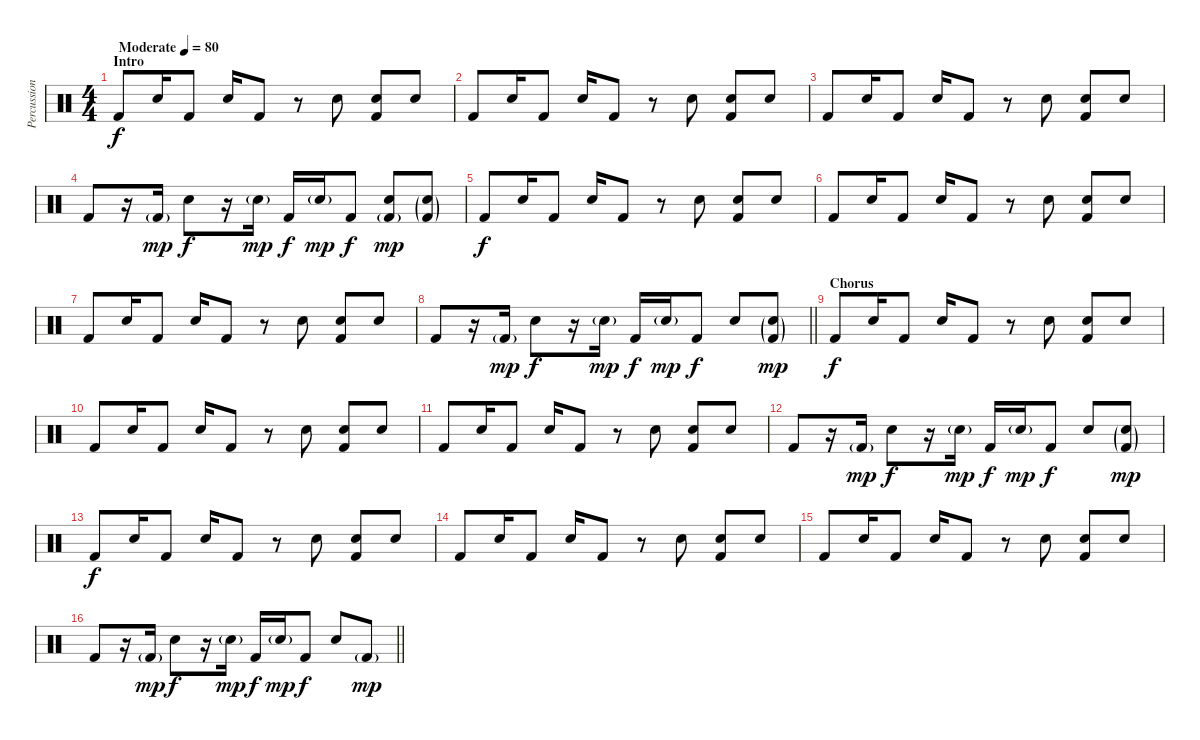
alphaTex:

\track ("Percussion" "Percussion") {instrument percussion}
\staff {score}
\articulation defaults
\ts (4 4)
\section ("" "Intro")
\tempo (80 "Moderate")
\clef neutral
\ks c "Kick (hit) 2".8{dy f} "Snare (hit) 2".16 "Kick (hit) 2".8 "Snare (hit) 2".16 "Kick (hit) 2".8
r.8 "Snare (hit) 2".8 ("Snare (hit) 2" "Kick (hit) 2").8 "Snare (hit) 2".8 |
"Kick (hit) 2".8 "Snare (hit) 2".16 "Kick (hit) 2".8 "Snare (hit) 2".16 "Kick (hit) 2".8 r.8 "Snare (hit) 2".8 ("Snare (hit) 2" "Kick (hit) 2").8 "Snare (hit) 2".8 |
"Kick (hit) 2".8 "Snare (hit) 2".16 "Kick (hit) 2".8 "Snare (hit) 2".16 "Kick (hit) 2".8 r.8 "Snare (hit) 2".8 ("Snare (hit) 2" "Kick (hit) 2").8 "Snare (hit) 2".8 |
"Kick (hit) 2".8 r.16 "Kick (hit) 2"{g}.16{dy mp} "Snare (hit) 2".8{dy f} r.16 "Snare (hit) 2"{g}.16{dy mp} "Kick (hit) 2".16{dy f} "Snare (hit) 2"{g}.16{dy mp} "Kick (hit) 2".8{dy f} ("Snare (hit) 2" "Kick (hit) 2"{g}).8{dy mp} ("Snare (hit) 2"{g} "Kick (hit) 2"{g}).8 |
"Kick (hit) 2".8{dy f} "Snare (hit) 2".16 "Kick (hit) 2".8 "Snare (hit) 2".16 "Kick (hit) 2".8 r.8 "Snare (hit) 2".8 ("Snare (hit) 2" "Kick (hit) 2").8 "Snare (hit) 2".8 |
"Kick (hit) 2".8 "Snare (hit) 2".16 "Kick (hit) 2".8 "Snare (hit) 2".16 "Kick (hit) 2".8 r.8 "Snare (hit) 2".8 ("Snare (hit) 2" "Kick (hit) 2").8 "Snare (hit) 2".8 |
"Kick (hit) 2".8 "Snare (hit) 2".16 "Kick (hit) 2".8 "Snare (hit) 2".16 "Kick (hit) 2".8 r.8 "Snare (hit) 2".8 ("Snare (hit) 2" "Kick (hit) 2").8 "Snare (hit) 2".8 |
\barLineRight lightlight "Kick (hit) 2".8
r.16 "Kick (hit) 2"{g}.16{dy mp} "Snare (hit) 2".8{dy f} r.16 "Snare (hit) 2"{g}.16{dy mp} "Kick (hit) 2".16{dy f} "Snare (hit) 2"{g}.16{dy mp} "Kick (hit) 2".8{dy f} "Snare (hit) 2".8 ("Snare (hit) 2"{g} "Kick (hit) 2"{g}).8{dy mp} |
\section ("" "Chorus")
"Kick (hit) 2".8{dy f} "Snare (hit) 2".16 "Kick (hit) 2".8 "Snare (hit) 2".16 "Kick (hit) 2".8 r.8 "Snare (hit) 2".8 ("Snare (hit) 2" "Kick (hit) 2").8 "Snare (hit) 2".8 |
"Kick (hit) 2".8 "Snare (hit) 2".16 "Kick (hit) 2".8 "Snare (hit) 2".16 "Kick (hit) 2".8 r.8 "Snare (hit) 2".8 ("Snare (hit) 2" "Kick (hit) 2").8 "Snare (hit) 2".8 |
"Kick (hit) 2".8 "Snare (hit) 2".16 "Kick (hit) 2".8 "Snare (hit) 2".16 "Kick (hit) 2".8 r.8 "Snare (hit) 2".8 ("Snare (hit) 2" "Kick (hit) 2").8 "Snare (hit) 2".8 |
"Kick (hit) 2".8 r.16 "Kick (hit) 2"{g}.16{dy mp} "Snare (hit) 2".8{dy f} r.16 "Snare (hit) 2"{g}.16{dy mp} "Kick (hit) 2".16{dy f} "Snare (hit) 2"{g}.16{dy mp} "Kick (hit) 2".8{dy f} "Snare (hit) 2".8 ("Snare (hit) 2"{g} "Kick (hit) 2"{g}).8{dy mp} |
"Kick (hit) 2".8{dy f} "Snare (hit) 2".16 "Kick (hit) 2".8 "Snare (hit) 2".16 "Kick (hit) 2".8 r.8 "Snare (hit) 2".8 ("Snare (hit) 2" "Kick (hit) 2").8 "Snare (hit) 2".8 |
"Kick (hit) 2".8 "Snare (hit) 2".16 "Kick (hit) 2".8 "Snare (hit) 2".16 "Kick (hit) 2".8 r.8 "Snare (hit) 2".8 ("Snare (hit) 2" "Kick (hit) 2").8 "Snare (hit) 2".8 |
"Kick (hit) 2".8 "Snare (hit) 2".16 "Kick (hit) 2".8 "Snare (hit) 2".16 "Kick (hit) 2".8 r.8 "Snare (hit) 2".8 ("Snare (hit) 2" "Kick (hit) 2").8 "Snare (hit) 2".8 |
\barLineRight lightlight "Kick (hit) 2".8
r.16 "Kick (hit) 2"{g}.16{dy mp} "Snare (hit) 2".8{dy f} r.16 "Snare (hit) 2"{g}.16{dy mp} "Kick (hit) 2".16{dy f} "Snare (hit) 2"{g}.16{dy mp} "Kick (hit) 2".8{dy f} "Snare (hit) 2".8 "Kick (hit) 2"{g}.8{dy mp}
